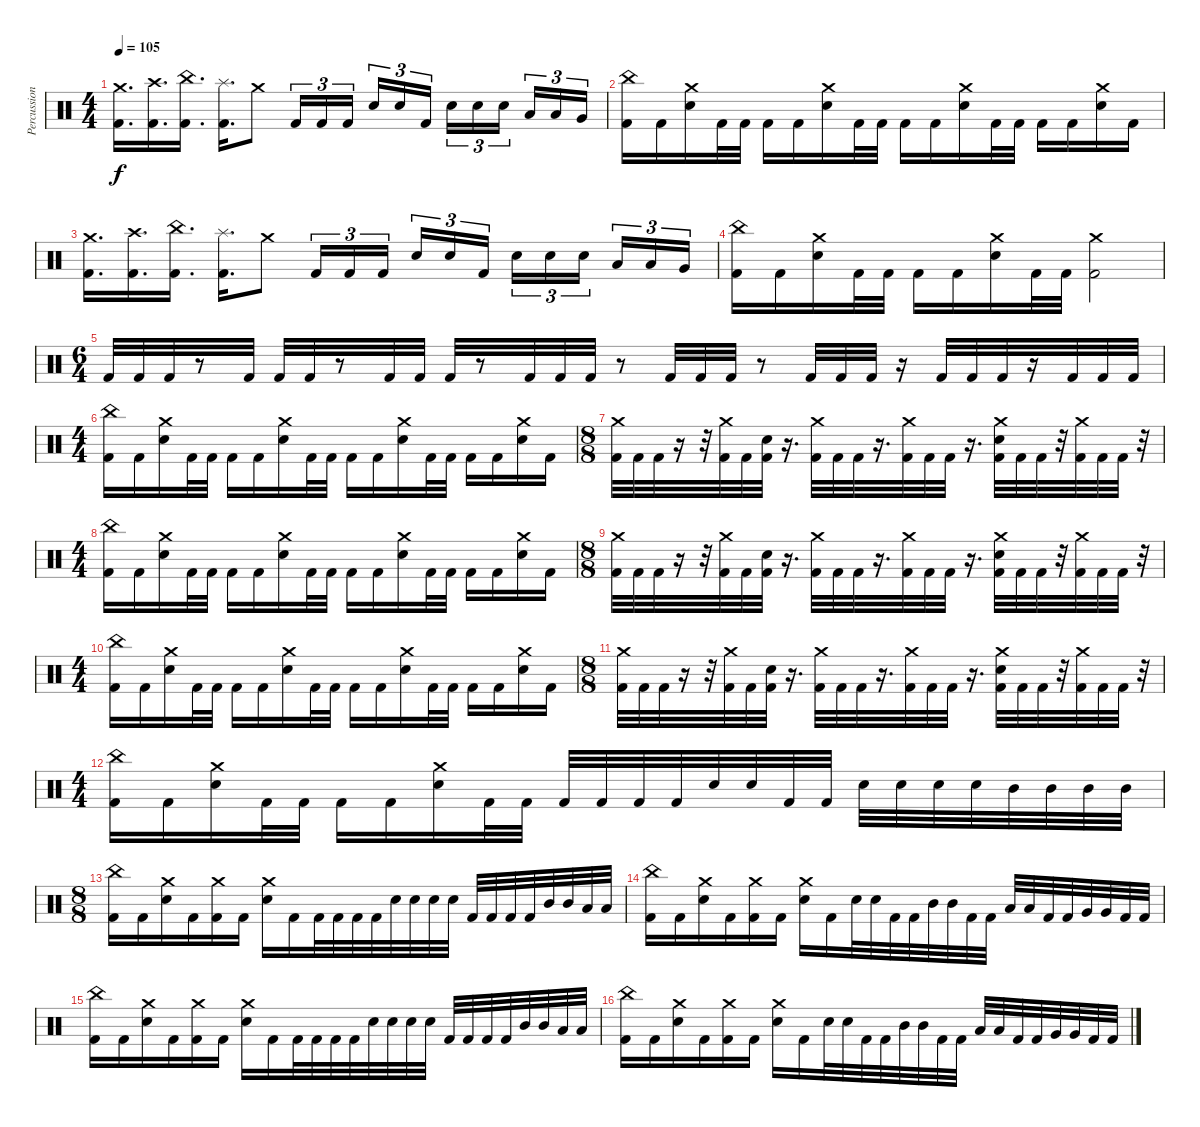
\track ("Percussion" "Percussion") {instrument percussion}
\staff {score}
\articulation defaults
\ts (4 4)
\tempo 105
\clef neutral
\ks c
("Crash medium (hit)" "Kick (hit) 2").16{d dy f} ("Crash high (hit)" "Kick (hit) 2").16{d} ("China (hit)" "Kick (hit) 2").16{d} ("Splash (hit)" "Kick (hit) 2").16{d} "Crash medium (hit)".8 "Kick (hit) 2".16{tu (3 2)} "Kick (hit) 2".16{tu (3 2)} "Kick (hit) 2".16{tu (3 2) beam splitsecondary} "Electric Snare (hit)".16{tu (3 2)} "Electric Snare (hit)".16{tu (3 2)} "Kick (hit) 2".16{tu (3 2)} "Electric Snare (hit)".16{tu (3 2)} "Electric Snare (hit)".16{tu (3 2)} "Electric Snare (hit)".16{tu (3 2) beam splitsecondary} "Low Tom (hit)".16{tu (3 2)} "Low Tom (hit)".16{tu (3 2)} "Very Low Tom (hit)".16{tu (3 2)} |
("China (hit)" "Kick (hit) 2").16 "Kick (hit) 2".16 ("Crash medium (hit)" "Electric Snare (hit)").16 "Kick (hit) 2".32 "Kick (hit) 2".32 "Kick (hit) 2".16 "Kick (hit) 2".16 ("Crash medium (hit)" "Electric Snare (hit)").16 "Kick (hit) 2".32 "Kick (hit) 2".32 "Kick (hit) 2".16 "Kick (hit) 2".16 ("Crash medium (hit)" "Electric Snare (hit)").16 "Kick (hit) 2".32 "Kick (hit) 2".32 "Kick (hit) 2".16 "Kick (hit) 2".16 ("Crash medium (hit)" "Electric Snare (hit)").16 "Kick (hit) 2".16 |
("Crash medium (hit)" "Kick (hit) 2").16{d} ("Crash high (hit)" "Kick (hit) 2").16{d} ("China (hit)" "Kick (hit) 2").16{d} ("Splash (hit)" "Kick (hit) 2").16{d} "Crash medium (hit)".8 "Kick (hit) 2".16{tu (3 2)} "Kick (hit) 2".16{tu (3 2)} "Kick (hit) 2".16{tu (3 2) beam splitsecondary} "Electric Snare (hit)".16{tu (3 2)} "Electric Snare (hit)".16{tu (3 2)} "Kick (hit) 2".16{tu (3 2)} "Electric Snare (hit)".16{tu (3 2)} "Electric Snare (hit)".16{tu (3 2)} "Electric Snare (hit)".16{tu (3 2) beam splitsecondary} "Low Tom (hit)".16{tu (3 2)} "Low Tom (hit)".16{tu (3 2)} "Very Low Tom (hit)".16{tu (3 2)} |
("China (hit)" "Kick (hit) 2").16 "Kick (hit) 2".16 ("Crash medium (hit)" "Electric Snare (hit)").16 "Kick (hit) 2".32 "Kick (hit) 2".32 "Kick (hit) 2".16 "Kick (hit) 2".16 ("Crash medium (hit)" "Electric Snare (hit)").16 "Kick (hit) 2".32 "Kick (hit) 2".32 ("Crash medium (hit)" "Kick (hit) 2").2 |
\ts (6 4)
"Kick (hit) 2".32 "Kick (hit) 2".32 "Kick (hit) 2".32 r.8 "Kick (hit) 2".32 "Kick (hit) 2".32 "Kick (hit) 2".32 r.8 "Kick (hit) 2".32 "Kick (hit) 2".32 "Kick (hit) 2".32 r.8 "Kick (hit) 2".32 "Kick (hit) 2".32 "Kick (hit) 2".32 r.8 "Kick (hit) 2".32 "Kick (hit) 2".32 "Kick (hit) 2".32 r.8 "Kick (hit) 2".32 "Kick (hit) 2".32 "Kick (hit) 2".32 r.16 "Kick (hit) 2".32 "Kick (hit) 2".32 "Kick (hit) 2".32 r.16 "Kick (hit) 2".32 "Kick (hit) 2".32 "Kick (hit) 2".32 |
\ts (4 4)
("China (hit)" "Kick (hit) 2").16 "Kick (hit) 2".16 ("Crash medium (hit)" "Electric Snare (hit)").16 "Kick (hit) 2".32 "Kick (hit) 2".32 "Kick (hit) 2".16 "Kick (hit) 2".16 ("Crash medium (hit)" "Electric Snare (hit)").16 "Kick (hit) 2".32 "Kick (hit) 2".32 "Kick (hit) 2".16 "Kick (hit) 2".16 ("Crash medium (hit)" "Electric Snare (hit)").16 "Kick (hit) 2".32 "Kick (hit) 2".32 "Kick (hit) 2".16 "Kick (hit) 2".16 ("Crash medium (hit)" "Electric Snare (hit)").16 "Kick (hit) 2".16 |
\ts (8 8)
("Crash medium (hit)" "Kick (hit) 2").32 "Kick (hit) 2".32 "Kick (hit) 2".32 r.16 r.32 ("Crash medium (hit)" "Kick (hit) 2").32 "Kick (hit) 2".32 ("Electric Snare (hit)" "Kick (hit) 2").32 r.16{d} ("Crash medium (hit)" "Kick (hit) 2").32 "Kick (hit) 2".32 "Kick (hit) 2".32 r.16{d} ("Crash medium (hit)" "Kick (hit) 2").32 "Kick (hit) 2".32 "Kick (hit) 2".32 r.16{d} ("Crash medium (hit)" "Electric Snare (hit)" "Kick (hit) 2").32 "Kick (hit) 2".32 "Kick (hit) 2".32 r.32 ("Crash medium (hit)" "Kick (hit) 2").32 "Kick (hit) 2".32 "Kick (hit) 2".32 r.32 |
\ts (4 4)
("China (hit)" "Kick (hit) 2").16 "Kick (hit) 2".16 ("Crash medium (hit)" "Electric Snare (hit)").16 "Kick (hit) 2".32 "Kick (hit) 2".32 "Kick (hit) 2".16 "Kick (hit) 2".16 ("Crash medium (hit)" "Electric Snare (hit)").16 "Kick (hit) 2".32 "Kick (hit) 2".32 "Kick (hit) 2".16 "Kick (hit) 2".16 ("Crash medium (hit)" "Electric Snare (hit)").16 "Kick (hit) 2".32 "Kick (hit) 2".32 "Kick (hit) 2".16 "Kick (hit) 2".16 ("Crash medium (hit)" "Electric Snare (hit)").16 "Kick (hit) 2".16 |
\ts (8 8)
("Crash medium (hit)" "Kick (hit) 2").32 "Kick (hit) 2".32 "Kick (hit) 2".32 r.16 r.32 ("Crash medium (hit)" "Kick (hit) 2").32 "Kick (hit) 2".32 ("Electric Snare (hit)" "Kick (hit) 2").32 r.16{d} ("Crash medium (hit)" "Kick (hit) 2").32 "Kick (hit) 2".32 "Kick (hit) 2".32 r.16{d} ("Crash medium (hit)" "Kick (hit) 2").32 "Kick (hit) 2".32 "Kick (hit) 2".32 r.16{d} ("Crash medium (hit)" "Electric Snare (hit)" "Kick (hit) 2").32 "Kick (hit) 2".32 "Kick (hit) 2".32 r.32 ("Crash medium (hit)" "Kick (hit) 2").32 "Kick (hit) 2".32 "Kick (hit) 2".32 r.32 |
\ts (4 4)
("China (hit)" "Kick (hit) 2").16 "Kick (hit) 2".16 ("Crash medium (hit)" "Electric Snare (hit)").16 "Kick (hit) 2".32 "Kick (hit) 2".32 "Kick (hit) 2".16 "Kick (hit) 2".16 ("Crash medium (hit)" "Electric Snare (hit)").16 "Kick (hit) 2".32 "Kick (hit) 2".32 "Kick (hit) 2".16 "Kick (hit) 2".16 ("Crash medium (hit)" "Electric Snare (hit)").16 "Kick (hit) 2".32 "Kick (hit) 2".32 "Kick (hit) 2".16 "Kick (hit) 2".16 ("Crash medium (hit)" "Electric Snare (hit)").16 "Kick (hit) 2".16 |
\ts (8 8)
("Crash medium (hit)" "Kick (hit) 2").32 "Kick (hit) 2".32 "Kick (hit) 2".32 r.16 r.32 ("Crash medium (hit)" "Kick (hit) 2").32 "Kick (hit) 2".32 ("Electric Snare (hit)" "Kick (hit) 2").32 r.16{d} ("Crash medium (hit)" "Kick (hit) 2").32 "Kick (hit) 2".32 "Kick (hit) 2".32 r.16{d} ("Crash medium (hit)" "Kick (hit) 2").32 "Kick (hit) 2".32 "Kick (hit) 2".32 r.16{d} ("Crash medium (hit)" "Electric Snare (hit)" "Kick (hit) 2").32 "Kick (hit) 2".32 "Kick (hit) 2".32 r.32 ("Crash medium (hit)" "Kick (hit) 2").32 "Kick (hit) 2".32 "Kick (hit) 2".32 r.32 |
\ts (4 4)
("China (hit)" "Kick (hit) 2").16 "Kick (hit) 2".16 ("Crash medium (hit)" "Electric Snare (hit)").16 "Kick (hit) 2".32 "Kick (hit) 2".32 "Kick (hit) 2".16 "Kick (hit) 2".16 ("Crash medium (hit)" "Electric Snare (hit)").16 "Kick (hit) 2".32 "Kick (hit) 2".32 "Kick (hit) 2".32 "Kick (hit) 2".32 "Kick (hit) 2".32 "Kick (hit) 2".32 "Electric Snare (hit)".32 "Electric Snare (hit)".32 "Kick (hit) 2".32 "Kick (hit) 2".32 "Electric Snare (hit)".32 "Electric Snare (hit)".32 "Electric Snare (hit)".32 "Electric Snare (hit)".32 "Mid Tom (hit)".32 "Mid Tom (hit)".32 "Mid Tom (hit)".32 "Mid Tom (hit)".32 |
\ts (8 8)
("China (hit)" "Kick (hit) 2").16 "Kick (hit) 2".16 ("Crash medium (hit)" "Electric Snare (hit)").16 "Kick (hit) 2".16 ("Crash medium (hit)" "Kick (hit) 2").16 "Kick (hit) 2".16 ("Crash medium (hit)" "Electric Snare (hit)").16 "Kick (hit) 2".16 "Kick (hit) 2".32 "Kick (hit) 2".32 "Kick (hit) 2".32 "Kick (hit) 2".32 "Electric Snare (hit)".32 "Electric Snare (hit)".32 "Electric Snare (hit)".32 "Electric Snare (hit)".32 "Kick (hit) 2".32 "Kick (hit) 2".32 "Kick (hit) 2".32 "Kick (hit) 2".32 "Mid Tom (hit)".32 "Mid Tom (hit)".32 "Low Tom (hit)".32 "Low Tom (hit)".32 |
("China (hit)" "Kick (hit) 2").16 "Kick (hit) 2".16 ("Crash medium (hit)" "Electric Snare (hit)").16 "Kick (hit) 2".16 ("Crash medium (hit)" "Kick (hit) 2").16 "Kick (hit) 2".16 ("Crash medium (hit)" "Electric Snare (hit)").16 "Kick (hit) 2".16 "Electric Snare (hit)".32 "Electric Snare (hit)".32 "Kick (hit) 2".32 "Kick (hit) 2".32 "Mid Tom (hit)".32 "Mid Tom (hit)".32 "Kick (hit) 2".32 "Kick (hit) 2".32 "Low Tom (hit)".32 "Low Tom (hit)".32 "Kick (hit) 2".32 "Kick (hit) 2".32 "Very Low Tom (hit)".32 "Very Low Tom (hit)".32 "Kick (hit) 2".32 "Kick (hit) 2".32 |
("China (hit)" "Kick (hit) 2").16 "Kick (hit) 2".16 ("Crash medium (hit)" "Electric Snare (hit)").16 "Kick (hit) 2".16 ("Crash medium (hit)" "Kick (hit) 2").16 "Kick (hit) 2".16 ("Crash medium (hit)" "Electric Snare (hit)").16 "Kick (hit) 2".16 "Kick (hit) 2".32 "Kick (hit) 2".32 "Kick (hit) 2".32 "Kick (hit) 2".32 "Electric Snare (hit)".32 "Electric Snare (hit)".32 "Electric Snare (hit)".32 "Electric Snare (hit)".32 "Kick (hit) 2".32 "Kick (hit) 2".32 "Kick (hit) 2".32 "Kick (hit) 2".32 "Mid Tom (hit)".32 "Mid Tom (hit)".32 "Low Tom (hit)".32 "Low Tom (hit)".32 |
("China (hit)" "Kick (hit) 2").16 "Kick (hit) 2".16 ("Crash medium (hit)" "Electric Snare (hit)").16 "Kick (hit) 2".16 ("Crash medium (hit)" "Kick (hit) 2").16 "Kick (hit) 2".16 ("Crash medium (hit)" "Electric Snare (hit)").16 "Kick (hit) 2".16 "Electric Snare (hit)".32 "Electric Snare (hit)".32 "Kick (hit) 2".32 "Kick (hit) 2".32 "Mid Tom (hit)".32 "Mid Tom (hit)".32 "Kick (hit) 2".32 "Kick (hit) 2".32 "Low Tom (hit)".32 "Low Tom (hit)".32 "Kick (hit) 2".32 "Kick (hit) 2".32 "Very Low Tom (hit)".32 "Very Low Tom (hit)".32 "Kick (hit) 2".32 "Kick (hit) 2".32
